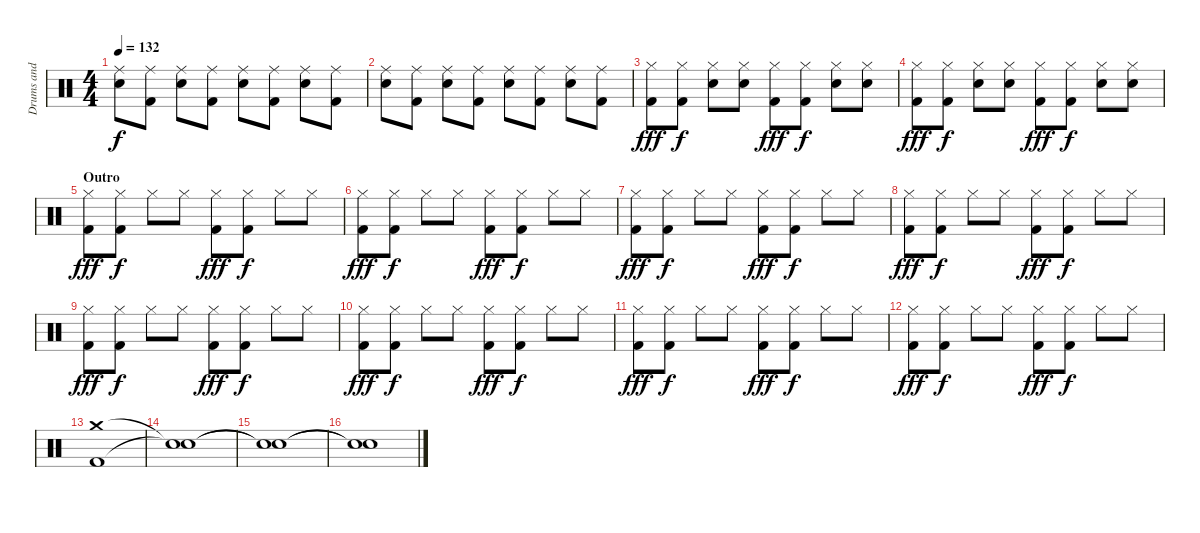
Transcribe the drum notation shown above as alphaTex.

\track ("Drums and Percussion" "Drums and ") {instrument percussion}
\staff {score}
\articulation defaults
\ts (4 4)
\tempo 132
\clef neutral
\ks c
("Ride (middle)" "Electric Snare (hit)").8{dy f} ("Ride (middle)" "Kick (hit) 2").8 ("Ride (middle)" "Electric Snare (hit)").8 ("Ride (middle)" "Kick (hit) 2").8 ("Ride (middle)" "Electric Snare (hit)").8 ("Ride (middle)" "Kick (hit) 2").8 ("Ride (middle)" "Electric Snare (hit)").8 ("Ride (middle)" "Kick (hit) 2").8 |
("Ride (middle)" "Electric Snare (hit)").8 ("Ride (middle)" "Kick (hit) 2").8 ("Ride (middle)" "Electric Snare (hit)").8 ("Ride (middle)" "Kick (hit) 2").8 ("Ride (middle)" "Electric Snare (hit)").8 ("Ride (middle)" "Kick (hit) 2").8 ("Ride (middle)" "Electric Snare (hit)").8 ("Ride (middle)" "Kick (hit) 2").8 |
("Hi-Hat (closed)" "Kick (hit) 2").8{dy fff} ("Hi-Hat (closed)" "Kick (hit) 2").8{dy f} ("Hi-Hat (closed)" "Hand Clap (hit)").8 ("Hi-Hat (closed)" "Hand Clap (hit)").8 ("Hi-Hat (closed)" "Kick (hit) 2").8{dy fff} ("Hi-Hat (closed)" "Kick (hit) 2").8{dy f} ("Hi-Hat (closed)" "Hand Clap (hit)").8 ("Hi-Hat (closed)" "Hand Clap (hit)").8 |
("Hi-Hat (closed)" "Kick (hit) 2").8{dy fff} ("Hi-Hat (closed)" "Kick (hit) 2").8{dy f} ("Hi-Hat (closed)" "Hand Clap (hit)").8 ("Hi-Hat (closed)" "Hand Clap (hit)").8 ("Hi-Hat (closed)" "Kick (hit) 2").8{dy fff} ("Hi-Hat (closed)" "Kick (hit) 2").8{dy f} ("Hi-Hat (closed)" "Hand Clap (hit)").8 ("Hi-Hat (closed)" "Hand Clap (hit)").8 |
\section ("" "Outro")
("Hi-Hat (closed)" "Kick (hit) 2").8{dy fff} ("Hi-Hat (closed)" "Kick (hit) 2").8{dy f} "Hi-Hat (closed)".8 "Hi-Hat (closed)".8 ("Hi-Hat (closed)" "Kick (hit) 2").8{dy fff} ("Hi-Hat (closed)" "Kick (hit) 2").8{dy f} "Hi-Hat (closed)".8 "Hi-Hat (closed)".8 |
("Hi-Hat (closed)" "Kick (hit) 2").8{dy fff} ("Hi-Hat (closed)" "Kick (hit) 2").8{dy f} "Hi-Hat (closed)".8 "Hi-Hat (closed)".8 ("Hi-Hat (closed)" "Kick (hit) 2").8{dy fff} ("Hi-Hat (closed)" "Kick (hit) 2").8{dy f} "Hi-Hat (closed)".8 "Hi-Hat (closed)".8 |
("Hi-Hat (closed)" "Kick (hit) 2").8{dy fff} ("Hi-Hat (closed)" "Kick (hit) 2").8{dy f} "Hi-Hat (closed)".8 "Hi-Hat (closed)".8 ("Hi-Hat (closed)" "Kick (hit) 2").8{dy fff} ("Hi-Hat (closed)" "Kick (hit) 2").8{dy f} "Hi-Hat (closed)".8 "Hi-Hat (closed)".8 |
("Hi-Hat (closed)" "Kick (hit) 2").8{dy fff} ("Hi-Hat (closed)" "Kick (hit) 2").8{dy f} "Hi-Hat (closed)".8 "Hi-Hat (closed)".8 ("Hi-Hat (closed)" "Kick (hit) 2").8{dy fff} ("Hi-Hat (closed)" "Kick (hit) 2").8{dy f} "Hi-Hat (closed)".8 "Hi-Hat (closed)".8 |
("Hi-Hat (closed)" "Kick (hit) 2").8{dy fff} ("Hi-Hat (closed)" "Kick (hit) 2").8{dy f} "Hi-Hat (closed)".8 "Hi-Hat (closed)".8 ("Hi-Hat (closed)" "Kick (hit) 2").8{dy fff} ("Hi-Hat (closed)" "Kick (hit) 2").8{dy f} "Hi-Hat (closed)".8 "Hi-Hat (closed)".8 |
("Hi-Hat (closed)" "Kick (hit) 2").8{dy fff} ("Hi-Hat (closed)" "Kick (hit) 2").8{dy f} "Hi-Hat (closed)".8 "Hi-Hat (closed)".8 ("Hi-Hat (closed)" "Kick (hit) 2").8{dy fff} ("Hi-Hat (closed)" "Kick (hit) 2").8{dy f} "Hi-Hat (closed)".8 "Hi-Hat (closed)".8 |
("Hi-Hat (closed)" "Kick (hit) 2").8{dy fff} ("Hi-Hat (closed)" "Kick (hit) 2").8{dy f} "Hi-Hat (closed)".8 "Hi-Hat (closed)".8 ("Hi-Hat (closed)" "Kick (hit) 2").8{dy fff} ("Hi-Hat (closed)" "Kick (hit) 2").8{dy f} "Hi-Hat (closed)".8 "Hi-Hat (closed)".8 |
("Hi-Hat (closed)" "Kick (hit) 2").8{dy fff} ("Hi-Hat (closed)" "Kick (hit) 2").8{dy f} "Hi-Hat (closed)".8 "Hi-Hat (closed)".8 ("Hi-Hat (closed)" "Kick (hit) 2").8{dy fff} ("Hi-Hat (closed)" "Kick (hit) 2").8{dy f} "Hi-Hat (closed)".8 "Hi-Hat (closed)".8 |
("Crash medium (hit)" "Kick (hit) 2").1{volume 0} |
("Snare (hit)"{t} "Snare (hit)"{t}).1 |
("Snare (hit)"{t} "Snare (hit)"{t}).1 |
("Snare (hit)"{t} "Snare (hit)"{t}).1
